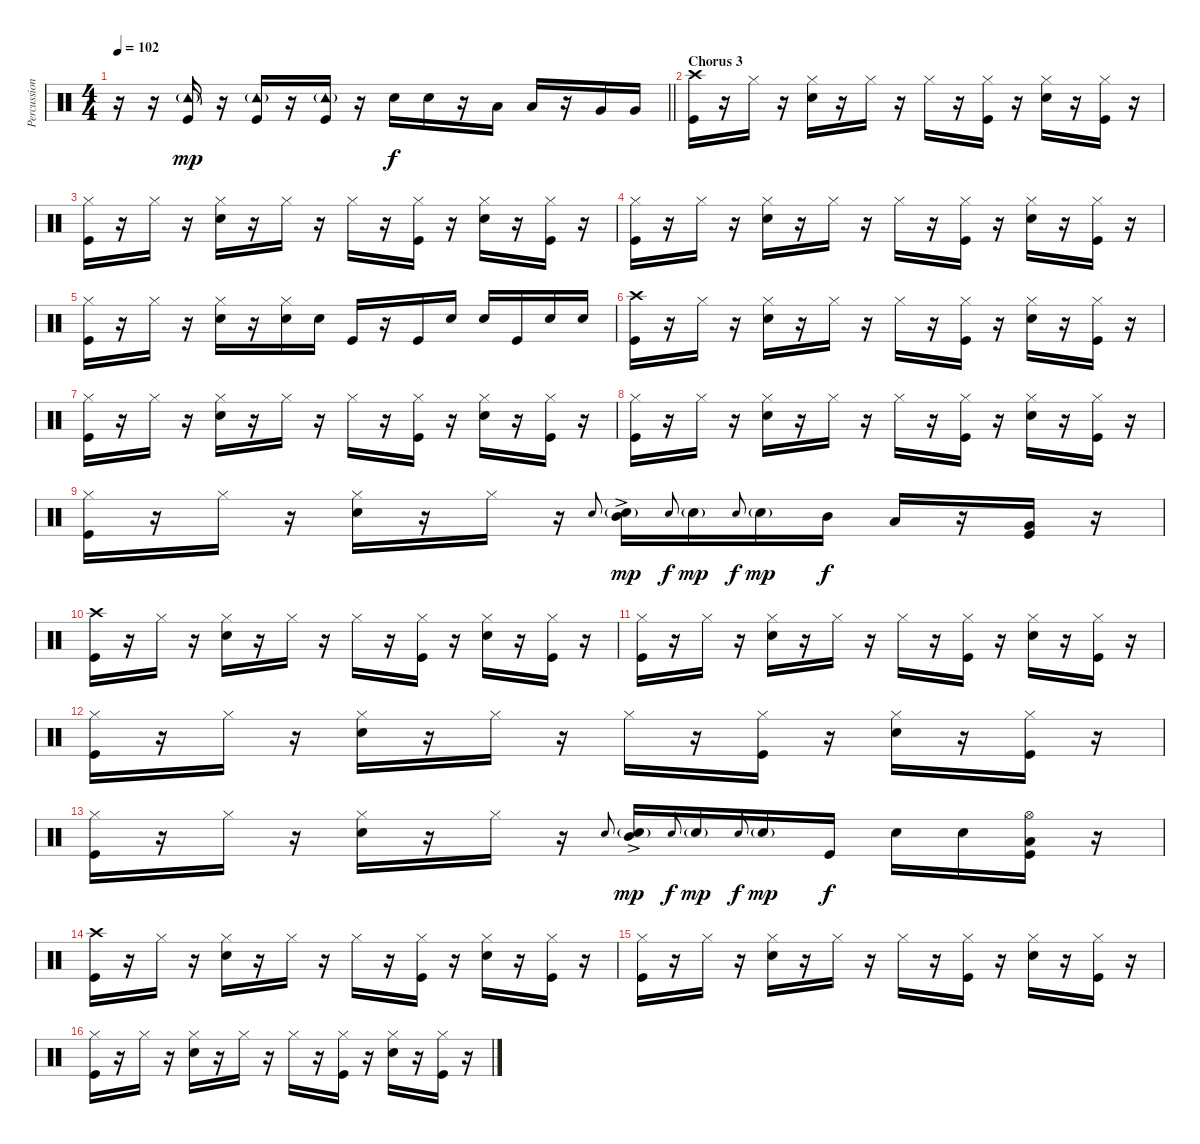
\track ("Percussion" "Percussion") {instrument percussion}
\staff {score}
\articulation defaults
\ts (4 4)
\tempo 102
\clef neutral
\barLineRight lightlight
\ks c
r.16{dy f} r.16 ("Tambourine (hit)"{g} "Kick (hit)").16{dy mp} r.16 ("Tambourine (hit)"{g} "Kick (hit)").16 r.16 ("Tambourine (hit)"{g} "Kick (hit)").16 r.16 "Snare (hit) 2".16{dy f} "Snare (hit) 2".16 r.16 "Low Tom (hit)".16 "Low Tom (hit)".16 r.16 "Very Low Tom (hit)".16 "Very Low Tom (hit)".16 |
\section ("" "Chorus 3")
("Crash high (hit)" "Kick (hit)").16 r.16 "Hi-Hat (closed)".16 r.16 ("Hi-Hat (closed)" "Snare (hit) 2").16 r.16 "Hi-Hat (closed)".16 r.16 "Hi-Hat (closed)".16 r.16 ("Hi-Hat (closed)" "Kick (hit)").16 r.16 ("Hi-Hat (closed)" "Snare (hit) 2").16 r.16 ("Hi-Hat (closed)" "Kick (hit)").16 r.16 |
("Hi-Hat (closed)" "Kick (hit)").16 r.16 "Hi-Hat (closed)".16 r.16 ("Hi-Hat (closed)" "Snare (hit) 2").16 r.16 "Hi-Hat (closed)".16 r.16 "Hi-Hat (closed)".16 r.16 ("Hi-Hat (closed)" "Kick (hit)").16 r.16 ("Hi-Hat (closed)" "Snare (hit) 2").16 r.16 ("Hi-Hat (closed)" "Kick (hit)").16 r.16 |
("Hi-Hat (closed)" "Kick (hit)").16 r.16 "Hi-Hat (closed)".16 r.16 ("Hi-Hat (closed)" "Snare (hit) 2").16 r.16 "Hi-Hat (closed)".16 r.16 "Hi-Hat (closed)".16 r.16 ("Hi-Hat (closed)" "Kick (hit)").16 r.16 ("Hi-Hat (closed)" "Snare (hit) 2").16 r.16 ("Hi-Hat (closed)" "Kick (hit)").16 r.16 |
("Hi-Hat (closed)" "Kick (hit)").16 r.16 "Hi-Hat (closed)".16 r.16 ("Hi-Hat (closed)" "Snare (hit) 2").16 r.16 ("Hi-Hat (closed)" "Snare (hit) 2").16 "Snare (hit) 2".16 "Kick (hit)".16 r.16 "Kick (hit)".16 "Snare (hit) 2".16 "Snare (hit) 2".16 "Kick (hit)".16 "Snare (hit) 2".16 "Snare (hit) 2".16 |
("Crash high (hit)" "Kick (hit)").16 r.16 "Hi-Hat (closed)".16 r.16 ("Hi-Hat (closed)" "Snare (hit) 2").16 r.16 "Hi-Hat (closed)".16 r.16 "Hi-Hat (closed)".16 r.16 ("Hi-Hat (closed)" "Kick (hit)").16 r.16 ("Hi-Hat (closed)" "Snare (hit) 2").16 r.16 ("Hi-Hat (closed)" "Kick (hit)").16 r.16 |
("Hi-Hat (closed)" "Kick (hit)").16 r.16 "Hi-Hat (closed)".16 r.16 ("Hi-Hat (closed)" "Snare (hit) 2").16 r.16 "Hi-Hat (closed)".16 r.16 "Hi-Hat (closed)".16 r.16 ("Hi-Hat (closed)" "Kick (hit)").16 r.16 ("Hi-Hat (closed)" "Snare (hit) 2").16 r.16 ("Hi-Hat (closed)" "Kick (hit)").16 r.16 |
("Hi-Hat (closed)" "Kick (hit)").16 r.16 "Hi-Hat (closed)".16 r.16 ("Hi-Hat (closed)" "Snare (hit) 2").16 r.16 "Hi-Hat (closed)".16 r.16 "Hi-Hat (closed)".16 r.16 ("Hi-Hat (closed)" "Kick (hit)").16 r.16 ("Hi-Hat (closed)" "Snare (hit) 2").16 r.16 ("Hi-Hat (closed)" "Kick (hit)").16 r.16 |
("Hi-Hat (closed)" "Kick (hit)").16 r.16 "Hi-Hat (closed)".16 r.16 ("Hi-Hat (closed)" "Snare (hit) 2").16 r.16 "Hi-Hat (closed)".16 r.16 "Snare (hit) 2".8{gr onbeat} ("Mid Tom (hit)"{ac} "Snare (hit) 2"{g}).16{dy mp} "Snare (hit) 2".8{gr onbeat dy f} "Snare (hit) 2"{g}.16{dy mp} "Snare (hit) 2".8{gr onbeat dy f} "Snare (hit) 2"{g}.16{dy mp} "Mid Tom (hit)".16{dy f} "Low Tom (hit)".16 r.16 ("Very Low Tom (hit)" "Kick (hit)").16 r.16 |
("Crash high (hit)" "Kick (hit)").16 r.16 "Hi-Hat (closed)".16 r.16 ("Hi-Hat (closed)" "Snare (hit) 2").16 r.16 "Hi-Hat (closed)".16 r.16 "Hi-Hat (closed)".16 r.16 ("Hi-Hat (closed)" "Kick (hit)").16 r.16 ("Hi-Hat (closed)" "Snare (hit) 2").16 r.16 ("Hi-Hat (closed)" "Kick (hit)").16 r.16 |
("Hi-Hat (closed)" "Kick (hit)").16 r.16 "Hi-Hat (closed)".16 r.16 ("Hi-Hat (closed)" "Snare (hit) 2").16 r.16 "Hi-Hat (closed)".16 r.16 "Hi-Hat (closed)".16 r.16 ("Hi-Hat (closed)" "Kick (hit)").16 r.16 ("Hi-Hat (closed)" "Snare (hit) 2").16 r.16 ("Hi-Hat (closed)" "Kick (hit)").16 r.16 |
("Hi-Hat (closed)" "Kick (hit)").16 r.16 "Hi-Hat (closed)".16 r.16 ("Hi-Hat (closed)" "Snare (hit) 2").16 r.16 "Hi-Hat (closed)".16 r.16 "Hi-Hat (closed)".16 r.16 ("Hi-Hat (closed)" "Kick (hit)").16 r.16 ("Hi-Hat (closed)" "Snare (hit) 2").16 r.16 ("Hi-Hat (closed)" "Kick (hit)").16 r.16 |
("Hi-Hat (closed)" "Kick (hit)").16 r.16 "Hi-Hat (closed)".16 r.16 ("Hi-Hat (closed)" "Snare (hit) 2").16 r.16 "Hi-Hat (closed)".16 r.16 "Snare (hit) 2".8{gr onbeat} ("Mid Tom (hit)"{ac} "Snare (hit) 2"{g}).16{dy mp} "Snare (hit) 2".8{gr onbeat dy f} "Snare (hit) 2"{g}.16{dy mp} "Snare (hit) 2".8{gr onbeat dy f} "Snare (hit) 2"{g}.16{dy mp} "Kick (hit)".16{dy f} "Snare (hit) 2".16 "Snare (hit) 2".16 ("Hi-Hat (open)" "Low Tom (hit)" "Kick (hit)").16 r.16 |
("Crash high (hit)" "Kick (hit)").16 r.16 "Hi-Hat (closed)".16 r.16 ("Hi-Hat (closed)" "Snare (hit) 2").16 r.16 "Hi-Hat (closed)".16 r.16 "Hi-Hat (closed)".16 r.16 ("Hi-Hat (closed)" "Kick (hit)").16 r.16 ("Hi-Hat (closed)" "Snare (hit) 2").16 r.16 ("Hi-Hat (closed)" "Kick (hit)").16 r.16 |
("Hi-Hat (closed)" "Kick (hit)").16 r.16 "Hi-Hat (closed)".16 r.16 ("Hi-Hat (closed)" "Snare (hit) 2").16 r.16 "Hi-Hat (closed)".16 r.16 "Hi-Hat (closed)".16 r.16 ("Hi-Hat (closed)" "Kick (hit)").16 r.16 ("Hi-Hat (closed)" "Snare (hit) 2").16 r.16 ("Hi-Hat (closed)" "Kick (hit)").16 r.16 |
("Hi-Hat (closed)" "Kick (hit)").16 r.16 "Hi-Hat (closed)".16 r.16 ("Hi-Hat (closed)" "Snare (hit) 2").16 r.16 "Hi-Hat (closed)".16 r.16 "Hi-Hat (closed)".16 r.16 ("Hi-Hat (closed)" "Kick (hit)").16 r.16 ("Hi-Hat (closed)" "Snare (hit) 2").16 r.16 ("Hi-Hat (closed)" "Kick (hit)").16 r.16
